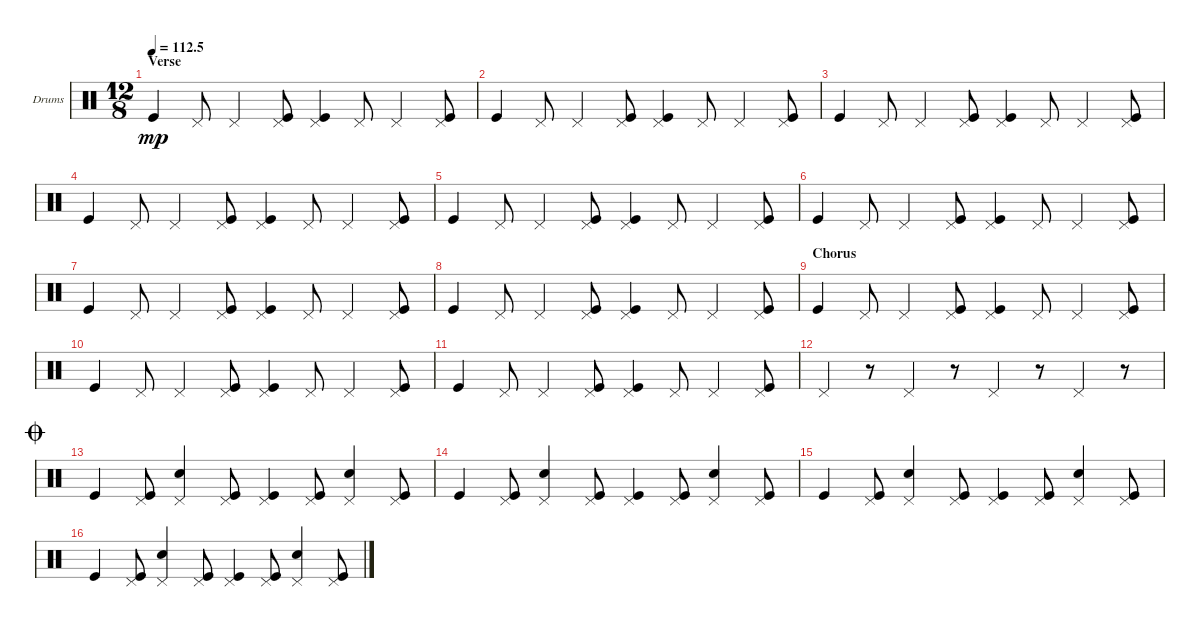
\defaultSystemsLayout 4
\bracketExtendMode groupsimilarinstruments
\firstSystemTrackNameOrientation horizontal
\otherSystemsTrackNameOrientation horizontal
\track ("Drumkit" "Drums") {instrument percussion}
\staff {score}
\articulation defaults
\ts (12 8)
\section ("" "Verse")
\tempo
112.5
\accidentals auto
\clef neutral
\ottava regular
\simile none
\ks c "Kick (hit)".4{dy mp} "Pedal Hi-Hat (hit)".8 "Pedal Hi-Hat (hit)".4
("Pedal Hi-Hat (hit)" "Kick (hit)").8 ("Pedal Hi-Hat (hit)" "Kick (hit)").4 "Pedal Hi-Hat (hit)".8 "Pedal Hi-Hat (hit)".4 ("Pedal Hi-Hat (hit)" "Kick (hit)").8 |
"Kick (hit)".4 "Pedal Hi-Hat (hit)".8 "Pedal Hi-Hat (hit)".4 ("Pedal Hi-Hat (hit)" "Kick (hit)").8 ("Pedal Hi-Hat (hit)" "Kick (hit)").4 "Pedal Hi-Hat (hit)".8 "Pedal Hi-Hat (hit)".4 ("Pedal Hi-Hat (hit)" "Kick (hit)").8 |
"Kick (hit)".4 "Pedal Hi-Hat (hit)".8 "Pedal Hi-Hat (hit)".4 ("Pedal Hi-Hat (hit)" "Kick (hit)").8 ("Pedal Hi-Hat (hit)" "Kick (hit)").4 "Pedal Hi-Hat (hit)".8 "Pedal Hi-Hat (hit)".4 ("Pedal Hi-Hat (hit)" "Kick (hit)").8 |
"Kick (hit)".4 "Pedal Hi-Hat (hit)".8 "Pedal Hi-Hat (hit)".4 ("Pedal Hi-Hat (hit)" "Kick (hit)").8 ("Pedal Hi-Hat (hit)" "Kick (hit)").4 "Pedal Hi-Hat (hit)".8 "Pedal Hi-Hat (hit)".4 ("Pedal Hi-Hat (hit)" "Kick (hit)").8 |
"Kick (hit)".4 "Pedal Hi-Hat (hit)".8 "Pedal Hi-Hat (hit)".4 ("Pedal Hi-Hat (hit)" "Kick (hit)").8 ("Pedal Hi-Hat (hit)" "Kick (hit)").4 "Pedal Hi-Hat (hit)".8 "Pedal Hi-Hat (hit)".4 ("Pedal Hi-Hat (hit)" "Kick (hit)").8 |
"Kick (hit)".4 "Pedal Hi-Hat (hit)".8 "Pedal Hi-Hat (hit)".4 ("Pedal Hi-Hat (hit)" "Kick (hit)").8 ("Pedal Hi-Hat (hit)" "Kick (hit)").4 "Pedal Hi-Hat (hit)".8 "Pedal Hi-Hat (hit)".4 ("Pedal Hi-Hat (hit)" "Kick (hit)").8 |
"Kick (hit)".4 "Pedal Hi-Hat (hit)".8 "Pedal Hi-Hat (hit)".4 ("Pedal Hi-Hat (hit)" "Kick (hit)").8 ("Pedal Hi-Hat (hit)" "Kick (hit)").4 "Pedal Hi-Hat (hit)".8 "Pedal Hi-Hat (hit)".4 ("Pedal Hi-Hat (hit)" "Kick (hit)").8 |
"Kick (hit)".4 "Pedal Hi-Hat (hit)".8 "Pedal Hi-Hat (hit)".4 ("Pedal Hi-Hat (hit)" "Kick (hit)").8 ("Pedal Hi-Hat (hit)" "Kick (hit)").4 "Pedal Hi-Hat (hit)".8 "Pedal Hi-Hat (hit)".4 ("Pedal Hi-Hat (hit)" "Kick (hit)").8 |
\section ("" "Chorus")
"Kick (hit)".4 "Pedal Hi-Hat (hit)".8 "Pedal Hi-Hat (hit)".4 ("Pedal Hi-Hat (hit)" "Kick (hit)").8 ("Pedal Hi-Hat (hit)" "Kick (hit)").4 "Pedal Hi-Hat (hit)".8 "Pedal Hi-Hat (hit)".4 ("Pedal Hi-Hat (hit)" "Kick (hit)").8 |
"Kick (hit)".4 "Pedal Hi-Hat (hit)".8 "Pedal Hi-Hat (hit)".4 ("Pedal Hi-Hat (hit)" "Kick (hit)").8 ("Pedal Hi-Hat (hit)" "Kick (hit)").4 "Pedal Hi-Hat (hit)".8 "Pedal Hi-Hat (hit)".4 ("Pedal Hi-Hat (hit)" "Kick (hit)").8 |
"Kick (hit)".4 "Pedal Hi-Hat (hit)".8 "Pedal Hi-Hat (hit)".4 ("Pedal Hi-Hat (hit)" "Kick (hit)").8 ("Pedal Hi-Hat (hit)" "Kick (hit)").4 "Pedal Hi-Hat (hit)".8 "Pedal Hi-Hat (hit)".4 ("Pedal Hi-Hat (hit)" "Kick (hit)").8 |
"Pedal Hi-Hat (hit)".4 r.8 "Pedal Hi-Hat (hit)".4 r.8 "Pedal Hi-Hat (hit)".4 r.8 "Pedal Hi-Hat (hit)".4 r.8 |
\jump coda "Kick (hit)".4
("Pedal Hi-Hat (hit)" "Kick (hit)").8 ("Pedal Hi-Hat (hit)" "Snare (hit) 2").4 ("Pedal Hi-Hat (hit)" "Kick (hit)").8 ("Pedal Hi-Hat (hit)" "Kick (hit)").4 ("Pedal Hi-Hat (hit)" "Kick (hit)").8 ("Pedal Hi-Hat (hit)" "Snare (hit) 2").4 ("Pedal Hi-Hat (hit)" "Kick (hit)").8 |
"Kick (hit)".4 ("Pedal Hi-Hat (hit)" "Kick (hit)").8 ("Pedal Hi-Hat (hit)" "Snare (hit) 2").4 ("Pedal Hi-Hat (hit)" "Kick (hit)").8 ("Pedal Hi-Hat (hit)" "Kick (hit)").4 ("Pedal Hi-Hat (hit)" "Kick (hit)").8 ("Pedal Hi-Hat (hit)" "Snare (hit) 2").4 ("Pedal Hi-Hat (hit)" "Kick (hit)").8 |
"Kick (hit)".4 ("Pedal Hi-Hat (hit)" "Kick (hit)").8 ("Pedal Hi-Hat (hit)" "Snare (hit) 2").4 ("Pedal Hi-Hat (hit)" "Kick (hit)").8 ("Pedal Hi-Hat (hit)" "Kick (hit)").4 ("Pedal Hi-Hat (hit)" "Kick (hit)").8 ("Pedal Hi-Hat (hit)" "Snare (hit) 2").4 ("Pedal Hi-Hat (hit)" "Kick (hit)").8 |
"Kick (hit)".4 ("Pedal Hi-Hat (hit)" "Kick (hit)").8 ("Pedal Hi-Hat (hit)" "Snare (hit) 2").4 ("Pedal Hi-Hat (hit)" "Kick (hit)").8 ("Pedal Hi-Hat (hit)" "Kick (hit)").4 ("Pedal Hi-Hat (hit)" "Kick (hit)").8 ("Pedal Hi-Hat (hit)" "Snare (hit) 2").4 ("Pedal Hi-Hat (hit)" "Kick (hit)").8
